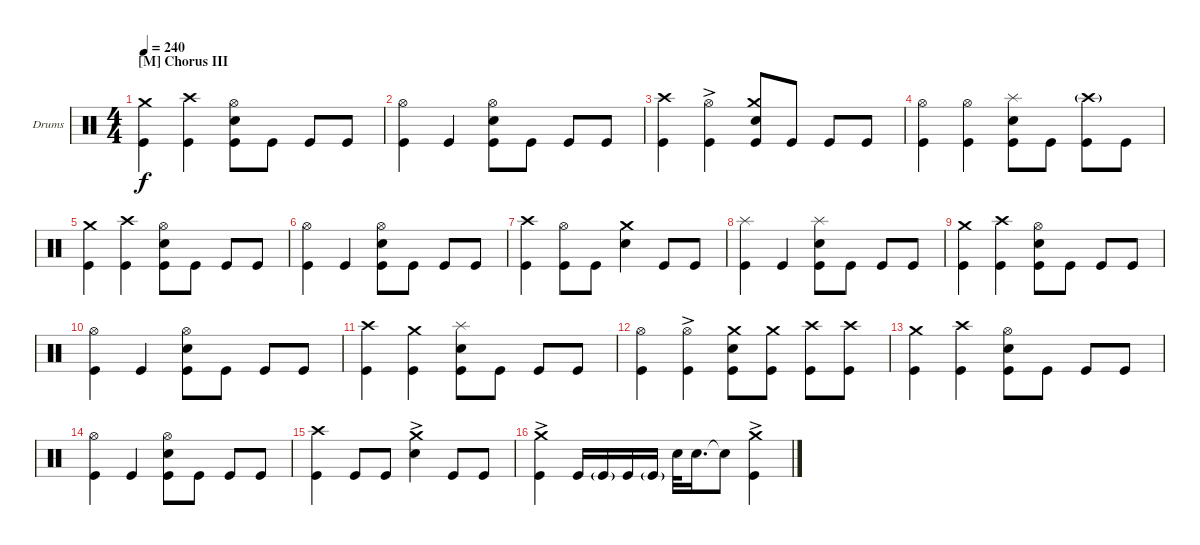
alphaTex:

\defaultSystemsLayout 4
\bracketExtendMode groupsimilarinstruments
\firstSystemTrackNameOrientation horizontal
\otherSystemsTrackNameOrientation horizontal
\track ("Drumkit" "Drums") {instrument percussion}
\staff {score}
\articulation defaults
\ts (4 4)
\section ("M" "Chorus III")
\tempo 240
\clef neutral
\ks c
("Kick (hit)" "Crash medium (hit)").4{dy f} ("Crash high (hit)" "Kick (hit)").4 ("Snare (hit) 2" "Kick (hit)" "Hi-Hat (open)").8 "Kick (hit)".8 "Kick (hit)".8 "Kick (hit)".8 |
("Kick (hit)" "Hi-Hat (open)").4 "Kick (hit)".4 ("Kick (hit)" "Snare (hit) 2" "Hi-Hat (open)").8 "Kick (hit)".8 "Kick (hit)".8 "Kick (hit)".8 |
("Crash high (hit)" "Kick (hit)").4 ("Kick (hit)" "Hi-Hat (open)"{ac}).4 ("Snare (hit) 2" "Kick (hit)" "Crash medium (hit)").8 "Kick (hit)".8 "Kick (hit)".8 "Kick (hit)".8 |
("Kick (hit)" "Hi-Hat (open)").4 ("Kick (hit)" "Hi-Hat (open)").4 ("Kick (hit)" "Snare (hit) 2" "Splash (hit)").8 "Kick (hit)".8 ("Kick (hit)" "Crash high (hit)"{g}).8 "Kick (hit)".8 |
("Kick (hit)" "Crash medium (hit)").4 ("Crash high (hit)" "Kick (hit)").4 ("Snare (hit) 2" "Kick (hit)" "Hi-Hat (open)").8 "Kick (hit)".8 "Kick (hit)".8 "Kick (hit)".8 |
("Kick (hit)" "Hi-Hat (open)").4 "Kick (hit)".4 ("Kick (hit)" "Snare (hit) 2" "Hi-Hat (open)").8 "Kick (hit)".8 "Kick (hit)".8 "Kick (hit)".8 |
("Crash high (hit)" "Kick (hit)").4 ("Kick (hit)" "Hi-Hat (open)").8 "Kick (hit)".8 ("Snare (hit) 2" "Crash medium (hit)").4 "Kick (hit)".8 "Kick (hit)".8 |
("Kick (hit)" "Splash (hit)").4 "Kick (hit)".4 ("Kick (hit)" "Snare (hit) 2" "Splash (hit)").8 "Kick (hit)".8 "Kick (hit)".8 "Kick (hit)".8 |
("Kick (hit)" "Crash medium (hit)").4 ("Crash high (hit)" "Kick (hit)").4 ("Snare (hit) 2" "Kick (hit)" "Hi-Hat (open)").8 "Kick (hit)".8 "Kick (hit)".8 "Kick (hit)".8 |
("Kick (hit)" "Hi-Hat (open)").4 "Kick (hit)".4 ("Kick (hit)" "Snare (hit) 2" "Hi-Hat (open)").8 "Kick (hit)".8 "Kick (hit)".8 "Kick (hit)".8 |
("Crash high (hit)" "Kick (hit)").4 ("Kick (hit)" "Crash medium (hit)").4 ("Snare (hit) 2" "Kick (hit)" "Splash (hit)").8 "Kick (hit)".8 "Kick (hit)".8 "Kick (hit)".8 |
("Kick (hit)" "Hi-Hat (open)").4 ("Kick (hit)" "Hi-Hat (open)"{ac}).4 ("Kick (hit)" "Snare (hit) 2" "Crash medium (hit)").8 ("Kick (hit)" "Crash medium (hit)").8 ("Kick (hit)" "Crash high (hit)").8 ("Kick (hit)" "Crash high (hit)").8 |
("Kick (hit)" "Crash medium (hit)").4 ("Crash high (hit)" "Kick (hit)").4 ("Snare (hit) 2" "Kick (hit)" "Hi-Hat (open)").8 "Kick (hit)".8 "Kick (hit)".8 "Kick (hit)".8 |
("Kick (hit)" "Hi-Hat (open)").4 "Kick (hit)".4 ("Kick (hit)" "Snare (hit) 2" "Hi-Hat (open)").8 "Kick (hit)".8 "Kick (hit)".8 "Kick (hit)".8 |
("Kick (hit)" "Crash high (hit)").4 "Kick (hit)".8 "Kick (hit)".8 ("Snare (hit) 2" "Crash medium (hit)"{ac}).4 "Kick (hit)".8 "Kick (hit)".8 |
("Kick (hit)" "Crash medium (hit)"{ac}).4 "Kick (hit)".16 "Kick (hit)"{g}.16 "Kick (hit)".16 "Kick (hit)"{g}.16 "Snare (hit) 2".32 "Snare (hit) 2".16{d} "Snare (hit) 2"{t}.8 ("Kick (hit)" "Crash medium (hit)"{ac}).4
